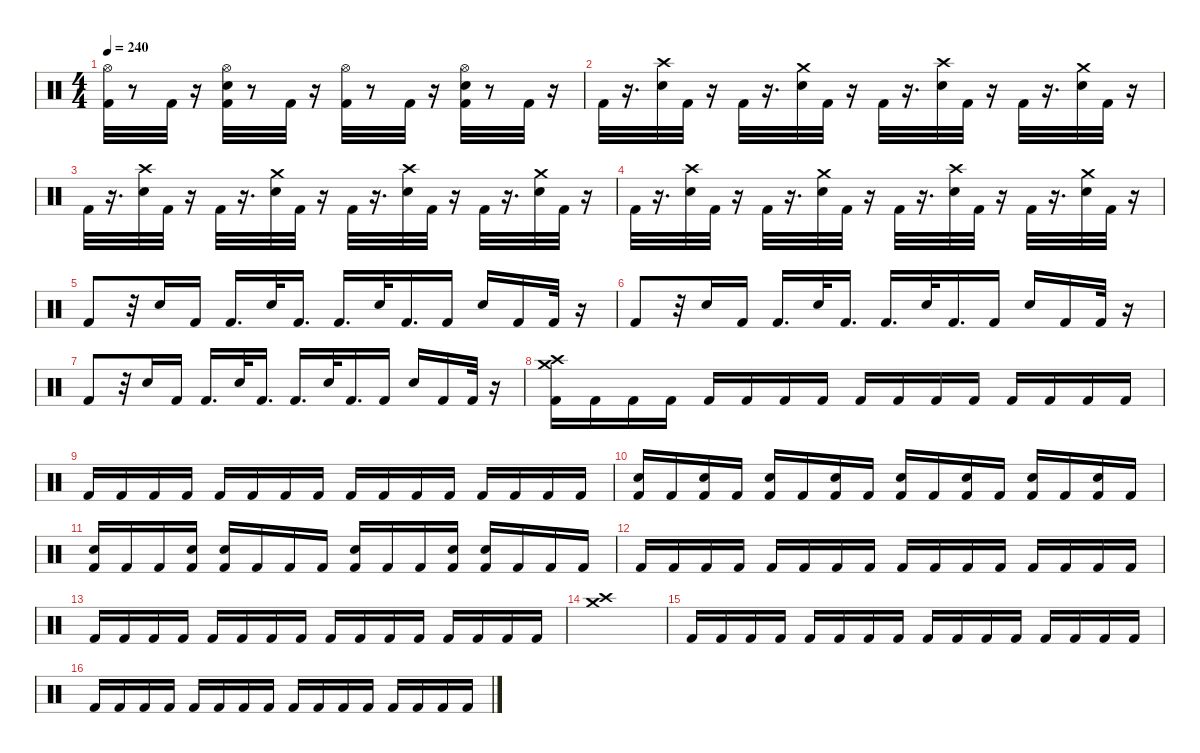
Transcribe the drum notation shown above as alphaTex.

\defaultSystemsLayout 4
\hideDynamics
\bracketExtendMode nobrackets
\singleTrackTrackNamePolicy hidden
\multiTrackTrackNamePolicy hidden
\otherSystemsTrackNameOrientation horizontal
\track ("Drums" "drm.") {instrument percussion}
\staff {score}
\articulation defaults
\ts (4 4)
\tempo 240
\clef neutral
\ks c
("Hi-Hat (open)" "Kick (hit) 2").32{dy f} r.8 "Kick (hit) 2".32 r.16 ("Snare (hit) 2" "Kick (hit) 2" "Hi-Hat (open)").32 r.8 "Kick (hit) 2".32 r.16 ("Kick (hit) 2" "Hi-Hat (open)").32 r.8 "Kick (hit) 2".32 r.16 ("Hi-Hat (open)" "Kick (hit) 2" "Snare (hit) 2").32 r.8 "Kick (hit) 2".32 r.16 |
"Kick (hit) 2".32 r.16{d} ("Crash high (hit)" "Snare (hit) 2").32 "Kick (hit) 2".32 r.16 "Kick (hit) 2".32 r.16{d} ("Snare (hit) 2" "Crash medium (hit)").32 "Kick (hit) 2".32 r.16 "Kick (hit) 2".32 r.16{d} ("Snare (hit) 2" "Crash high (hit)").32 "Kick (hit) 2".32 r.16 "Kick (hit) 2".32 r.16{d} ("Snare (hit) 2" "Crash medium (hit)").32 "Kick (hit) 2".32 r.16 |
"Kick (hit) 2".32 r.16{d} ("Snare (hit) 2" "Crash high (hit)").32 "Kick (hit) 2".32 r.16 "Kick (hit) 2".32 r.16{d} ("Snare (hit) 2" "Crash medium (hit)").32 "Kick (hit) 2".32 r.16 "Kick (hit) 2".32 r.16{d} ("Snare (hit) 2" "Crash high (hit)").32 "Kick (hit) 2".32 r.16 "Kick (hit) 2".32 r.16{d} ("Crash medium (hit)" "Snare (hit) 2").32 "Kick (hit) 2".32 r.16 |
"Kick (hit) 2".32 r.16{d} ("Crash high (hit)" "Snare (hit) 2").32 "Kick (hit) 2".32 r.16 "Kick (hit) 2".32 r.16{d} ("Snare (hit) 2" "Crash medium (hit)").32 "Kick (hit) 2".32 r.16 "Kick (hit) 2".32 r.16{d} ("Snare (hit) 2" "Crash high (hit)").32 "Kick (hit) 2".32 r.16 "Kick (hit) 2".32 r.16{d} ("Snare (hit) 2" "Crash medium (hit)").32 "Kick (hit) 2".32 r.16 |
"Kick (hit) 2".8{dy fff} r.32 "Snare (hit) 2".16 "Kick (hit) 2".16 "Kick (hit) 2".16{d} "Snare (hit) 2".32 "Kick (hit) 2".16{d} "Kick (hit) 2".16{d} "Snare (hit) 2".32 "Kick (hit) 2".16{d} "Kick (hit) 2".16 "Snare (hit) 2".16 "Kick (hit) 2".16 "Kick (hit) 2".32 r.16 |
"Kick (hit) 2".8 r.32 "Snare (hit) 2".16 "Kick (hit) 2".16 "Kick (hit) 2".16{d} "Snare (hit) 2".32 "Kick (hit) 2".16{d} "Kick (hit) 2".16{d} "Snare (hit) 2".32 "Kick (hit) 2".16{d} "Kick (hit) 2".16 "Snare (hit) 2".16 "Kick (hit) 2".16 "Kick (hit) 2".32 r.16 |
"Kick (hit) 2".8 r.32 "Snare (hit) 2".16 "Kick (hit) 2".16 "Kick (hit) 2".16{d} "Snare (hit) 2".32 "Kick (hit) 2".16{d} "Kick (hit) 2".16{d} "Snare (hit) 2".32 "Kick (hit) 2".16{d} "Kick (hit) 2".16 "Snare (hit) 2".16 "Kick (hit) 2".16 "Kick (hit) 2".32 r.16 |
("Crash medium (hit)" "Crash high (hit)" "Kick (hit) 2").16{dy f} "Kick (hit) 2".16 "Kick (hit) 2".16 "Kick (hit) 2".16 "Kick (hit) 2".16 "Kick (hit) 2".16 "Kick (hit) 2".16 "Kick (hit) 2".16 "Kick (hit) 2".16 "Kick (hit) 2".16 "Kick (hit) 2".16 "Kick (hit) 2".16 "Kick (hit) 2".16 "Kick (hit) 2".16 "Kick (hit) 2".16 "Kick (hit) 2".16 |
"Kick (hit) 2".16 "Kick (hit) 2".16 "Kick (hit) 2".16 "Kick (hit) 2".16 "Kick (hit) 2".16 "Kick (hit) 2".16 "Kick (hit) 2".16 "Kick (hit) 2".16 "Kick (hit) 2".16 "Kick (hit) 2".16 "Kick (hit) 2".16 "Kick (hit) 2".16 "Kick (hit) 2".16 "Kick (hit) 2".16 "Kick (hit) 2".16 "Kick (hit) 2".16 |
("Snare (hit) 2" "Kick (hit) 2").16 "Kick (hit) 2".16 ("Snare (hit) 2" "Kick (hit) 2").16 "Kick (hit) 2".16 ("Snare (hit) 2" "Kick (hit) 2").16 "Kick (hit) 2".16 ("Snare (hit) 2" "Kick (hit) 2").16 "Kick (hit) 2".16 ("Snare (hit) 2" "Kick (hit) 2").16 "Kick (hit) 2".16 ("Snare (hit) 2" "Kick (hit) 2").16 "Kick (hit) 2".16 ("Snare (hit) 2" "Kick (hit) 2").16 "Kick (hit) 2".16 ("Snare (hit) 2" "Kick (hit) 2").16 "Kick (hit) 2".16 |
("Snare (hit) 2" "Kick (hit) 2").16 "Kick (hit) 2".16 "Kick (hit) 2".16 ("Snare (hit) 2" "Kick (hit) 2").16 ("Snare (hit) 2" "Kick (hit) 2").16 "Kick (hit) 2".16 "Kick (hit) 2".16 "Kick (hit) 2".16 ("Snare (hit) 2" "Kick (hit) 2").16 "Kick (hit) 2".16 "Kick (hit) 2".16 ("Snare (hit) 2" "Kick (hit) 2").16 ("Snare (hit) 2" "Kick (hit) 2").16 "Kick (hit) 2".16 "Kick (hit) 2".16 "Kick (hit) 2".16 |
"Kick (hit) 2".16 "Kick (hit) 2".16 "Kick (hit) 2".16 "Kick (hit) 2".16 "Kick (hit) 2".16 "Kick (hit) 2".16 "Kick (hit) 2".16 "Kick (hit) 2".16 "Kick (hit) 2".16 "Kick (hit) 2".16 "Kick (hit) 2".16 "Kick (hit) 2".16 "Kick (hit) 2".16 "Kick (hit) 2".16 "Kick (hit) 2".16 "Kick (hit) 2".16 |
"Kick (hit) 2".16 "Kick (hit) 2".16 "Kick (hit) 2".16 "Kick (hit) 2".16 "Kick (hit) 2".16 "Kick (hit) 2".16 "Kick (hit) 2".16 "Kick (hit) 2".16 "Kick (hit) 2".16 "Kick (hit) 2".16 "Kick (hit) 2".16 "Kick (hit) 2".16 "Kick (hit) 2".16 "Kick (hit) 2".16 "Kick (hit) 2".16 "Kick (hit) 2".16 |
("Crash medium (hit)" "Crash high (hit)").1 |
"Kick (hit) 2".16 "Kick (hit) 2".16 "Kick (hit) 2".16 "Kick (hit) 2".16 "Kick (hit) 2".16 "Kick (hit) 2".16 "Kick (hit) 2".16 "Kick (hit) 2".16 "Kick (hit) 2".16 "Kick (hit) 2".16 "Kick (hit) 2".16 "Kick (hit) 2".16 "Kick (hit) 2".16 "Kick (hit) 2".16 "Kick (hit) 2".16 "Kick (hit) 2".16 |
"Kick (hit) 2".16 "Kick (hit) 2".16 "Kick (hit) 2".16 "Kick (hit) 2".16 "Kick (hit) 2".16 "Kick (hit) 2".16 "Kick (hit) 2".16 "Kick (hit) 2".16 "Kick (hit) 2".16 "Kick (hit) 2".16 "Kick (hit) 2".16 "Kick (hit) 2".16 "Kick (hit) 2".16 "Kick (hit) 2".16 "Kick (hit) 2".16 "Kick (hit) 2".16
